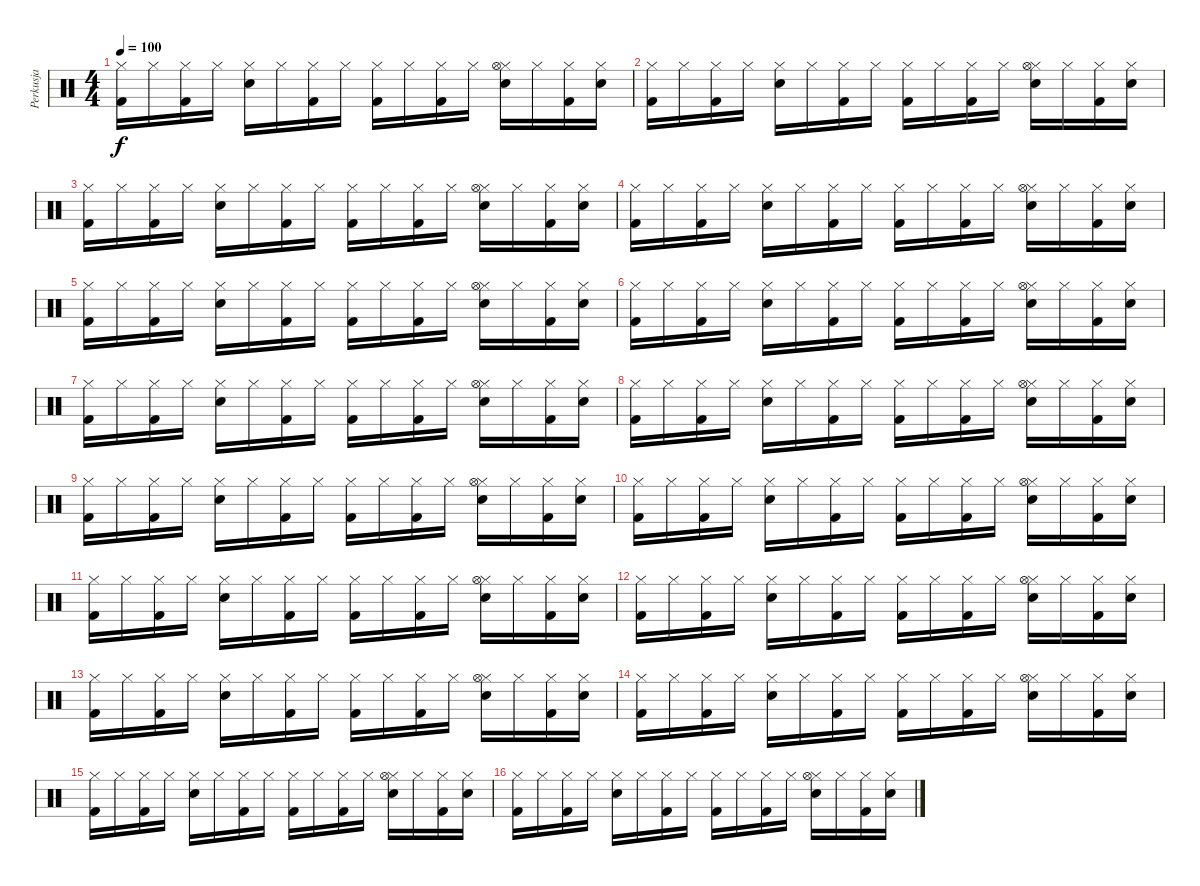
\track ("Perkusja" "Perkusja") {instrument percussion}
\staff {score}
\articulation defaults
\ts (4 4)
\tempo 100
\clef neutral
\ks c
("Hi-Hat (closed)" "Kick (hit) 2").16{dy f} "Hi-Hat (closed)".16 ("Hi-Hat (closed)" "Kick (hit) 2").16 "Hi-Hat (closed)".16 ("Hi-Hat (closed)" "Electric Snare (hit)").16 "Hi-Hat (closed)".16 ("Hi-Hat (closed)" "Kick (hit) 2").16 "Hi-Hat (closed)".16 ("Hi-Hat (closed)" "Kick (hit) 2").16 "Hi-Hat (closed)".16 ("Hi-Hat (closed)" "Kick (hit) 2").16 "Hi-Hat (closed)".16 ("Hi-Hat (closed)" "Hi-Hat (open)" "Electric Snare (hit)").16 "Hi-Hat (closed)".16 ("Hi-Hat (closed)" "Kick (hit) 2").16 ("Hi-Hat (closed)" "Electric Snare (hit)").16 |
("Hi-Hat (closed)" "Kick (hit) 2").16 "Hi-Hat (closed)".16 ("Hi-Hat (closed)" "Kick (hit) 2").16 "Hi-Hat (closed)".16 ("Hi-Hat (closed)" "Electric Snare (hit)").16 "Hi-Hat (closed)".16 ("Hi-Hat (closed)" "Kick (hit) 2").16 "Hi-Hat (closed)".16 ("Hi-Hat (closed)" "Kick (hit) 2").16 "Hi-Hat (closed)".16 ("Hi-Hat (closed)" "Kick (hit) 2").16 "Hi-Hat (closed)".16 ("Hi-Hat (closed)" "Hi-Hat (open)" "Electric Snare (hit)").16 "Hi-Hat (closed)".16 ("Hi-Hat (closed)" "Kick (hit) 2").16 ("Hi-Hat (closed)" "Electric Snare (hit)").16 |
("Hi-Hat (closed)" "Kick (hit) 2").16 "Hi-Hat (closed)".16 ("Hi-Hat (closed)" "Kick (hit) 2").16 "Hi-Hat (closed)".16 ("Hi-Hat (closed)" "Electric Snare (hit)").16 "Hi-Hat (closed)".16 ("Hi-Hat (closed)" "Kick (hit) 2").16 "Hi-Hat (closed)".16 ("Hi-Hat (closed)" "Kick (hit) 2").16 "Hi-Hat (closed)".16 ("Hi-Hat (closed)" "Kick (hit) 2").16 "Hi-Hat (closed)".16 ("Hi-Hat (closed)" "Hi-Hat (open)" "Electric Snare (hit)").16 "Hi-Hat (closed)".16 ("Hi-Hat (closed)" "Kick (hit) 2").16 ("Hi-Hat (closed)" "Electric Snare (hit)").16 |
("Hi-Hat (closed)" "Kick (hit) 2").16 "Hi-Hat (closed)".16 ("Hi-Hat (closed)" "Kick (hit) 2").16 "Hi-Hat (closed)".16 ("Hi-Hat (closed)" "Electric Snare (hit)").16 "Hi-Hat (closed)".16 ("Hi-Hat (closed)" "Kick (hit) 2").16 "Hi-Hat (closed)".16 ("Hi-Hat (closed)" "Kick (hit) 2").16 "Hi-Hat (closed)".16 ("Hi-Hat (closed)" "Kick (hit) 2").16 "Hi-Hat (closed)".16 ("Hi-Hat (closed)" "Hi-Hat (open)" "Electric Snare (hit)").16 "Hi-Hat (closed)".16 ("Hi-Hat (closed)" "Kick (hit) 2").16 ("Hi-Hat (closed)" "Electric Snare (hit)").16 |
("Hi-Hat (closed)" "Kick (hit) 2").16 "Hi-Hat (closed)".16 ("Hi-Hat (closed)" "Kick (hit) 2").16 "Hi-Hat (closed)".16 ("Hi-Hat (closed)" "Electric Snare (hit)").16 "Hi-Hat (closed)".16 ("Hi-Hat (closed)" "Kick (hit) 2").16 "Hi-Hat (closed)".16 ("Hi-Hat (closed)" "Kick (hit) 2").16 "Hi-Hat (closed)".16 ("Hi-Hat (closed)" "Kick (hit) 2").16 "Hi-Hat (closed)".16 ("Hi-Hat (closed)" "Hi-Hat (open)" "Electric Snare (hit)").16 "Hi-Hat (closed)".16 ("Hi-Hat (closed)" "Kick (hit) 2").16 ("Hi-Hat (closed)" "Electric Snare (hit)").16 |
("Hi-Hat (closed)" "Kick (hit) 2").16 "Hi-Hat (closed)".16 ("Hi-Hat (closed)" "Kick (hit) 2").16 "Hi-Hat (closed)".16 ("Hi-Hat (closed)" "Electric Snare (hit)").16 "Hi-Hat (closed)".16 ("Hi-Hat (closed)" "Kick (hit) 2").16 "Hi-Hat (closed)".16 ("Hi-Hat (closed)" "Kick (hit) 2").16 "Hi-Hat (closed)".16 ("Hi-Hat (closed)" "Kick (hit) 2").16 "Hi-Hat (closed)".16 ("Hi-Hat (closed)" "Hi-Hat (open)" "Electric Snare (hit)").16 "Hi-Hat (closed)".16 ("Hi-Hat (closed)" "Kick (hit) 2").16 ("Hi-Hat (closed)" "Electric Snare (hit)").16 |
("Hi-Hat (closed)" "Kick (hit) 2").16 "Hi-Hat (closed)".16 ("Hi-Hat (closed)" "Kick (hit) 2").16 "Hi-Hat (closed)".16 ("Hi-Hat (closed)" "Electric Snare (hit)").16 "Hi-Hat (closed)".16 ("Hi-Hat (closed)" "Kick (hit) 2").16 "Hi-Hat (closed)".16 ("Hi-Hat (closed)" "Kick (hit) 2").16 "Hi-Hat (closed)".16 ("Hi-Hat (closed)" "Kick (hit) 2").16 "Hi-Hat (closed)".16 ("Hi-Hat (closed)" "Hi-Hat (open)" "Electric Snare (hit)").16 "Hi-Hat (closed)".16 ("Hi-Hat (closed)" "Kick (hit) 2").16 ("Hi-Hat (closed)" "Electric Snare (hit)").16 |
("Hi-Hat (closed)" "Kick (hit) 2").16 "Hi-Hat (closed)".16 ("Hi-Hat (closed)" "Kick (hit) 2").16 "Hi-Hat (closed)".16 ("Hi-Hat (closed)" "Electric Snare (hit)").16 "Hi-Hat (closed)".16 ("Hi-Hat (closed)" "Kick (hit) 2").16 "Hi-Hat (closed)".16 ("Hi-Hat (closed)" "Kick (hit) 2").16 "Hi-Hat (closed)".16 ("Hi-Hat (closed)" "Kick (hit) 2").16 "Hi-Hat (closed)".16 ("Hi-Hat (closed)" "Hi-Hat (open)" "Electric Snare (hit)").16 "Hi-Hat (closed)".16 ("Hi-Hat (closed)" "Kick (hit) 2").16 ("Hi-Hat (closed)" "Electric Snare (hit)").16 |
("Hi-Hat (closed)" "Kick (hit) 2").16 "Hi-Hat (closed)".16 ("Hi-Hat (closed)" "Kick (hit) 2").16 "Hi-Hat (closed)".16 ("Hi-Hat (closed)" "Electric Snare (hit)").16 "Hi-Hat (closed)".16 ("Hi-Hat (closed)" "Kick (hit) 2").16 "Hi-Hat (closed)".16 ("Hi-Hat (closed)" "Kick (hit) 2").16 "Hi-Hat (closed)".16 ("Hi-Hat (closed)" "Kick (hit) 2").16 "Hi-Hat (closed)".16 ("Hi-Hat (closed)" "Hi-Hat (open)" "Electric Snare (hit)").16 "Hi-Hat (closed)".16 ("Hi-Hat (closed)" "Kick (hit) 2").16 ("Hi-Hat (closed)" "Electric Snare (hit)").16 |
("Hi-Hat (closed)" "Kick (hit) 2").16 "Hi-Hat (closed)".16 ("Hi-Hat (closed)" "Kick (hit) 2").16 "Hi-Hat (closed)".16 ("Hi-Hat (closed)" "Electric Snare (hit)").16 "Hi-Hat (closed)".16 ("Hi-Hat (closed)" "Kick (hit) 2").16 "Hi-Hat (closed)".16 ("Hi-Hat (closed)" "Kick (hit) 2").16 "Hi-Hat (closed)".16 ("Hi-Hat (closed)" "Kick (hit) 2").16 "Hi-Hat (closed)".16 ("Hi-Hat (closed)" "Hi-Hat (open)" "Electric Snare (hit)").16 "Hi-Hat (closed)".16 ("Hi-Hat (closed)" "Kick (hit) 2").16 ("Hi-Hat (closed)" "Electric Snare (hit)").16 |
("Hi-Hat (closed)" "Kick (hit) 2").16 "Hi-Hat (closed)".16 ("Hi-Hat (closed)" "Kick (hit) 2").16 "Hi-Hat (closed)".16 ("Hi-Hat (closed)" "Electric Snare (hit)").16 "Hi-Hat (closed)".16 ("Hi-Hat (closed)" "Kick (hit) 2").16 "Hi-Hat (closed)".16 ("Hi-Hat (closed)" "Kick (hit) 2").16 "Hi-Hat (closed)".16 ("Hi-Hat (closed)" "Kick (hit) 2").16 "Hi-Hat (closed)".16 ("Hi-Hat (closed)" "Hi-Hat (open)" "Electric Snare (hit)").16 "Hi-Hat (closed)".16 ("Hi-Hat (closed)" "Kick (hit) 2").16 ("Hi-Hat (closed)" "Electric Snare (hit)").16 |
("Hi-Hat (closed)" "Kick (hit) 2").16 "Hi-Hat (closed)".16 ("Hi-Hat (closed)" "Kick (hit) 2").16 "Hi-Hat (closed)".16 ("Hi-Hat (closed)" "Electric Snare (hit)").16 "Hi-Hat (closed)".16 ("Hi-Hat (closed)" "Kick (hit) 2").16 "Hi-Hat (closed)".16 ("Hi-Hat (closed)" "Kick (hit) 2").16 "Hi-Hat (closed)".16 ("Hi-Hat (closed)" "Kick (hit) 2").16 "Hi-Hat (closed)".16 ("Hi-Hat (closed)" "Hi-Hat (open)" "Electric Snare (hit)").16 "Hi-Hat (closed)".16 ("Hi-Hat (closed)" "Kick (hit) 2").16 ("Hi-Hat (closed)" "Electric Snare (hit)").16 |
("Hi-Hat (closed)" "Kick (hit) 2").16 "Hi-Hat (closed)".16 ("Hi-Hat (closed)" "Kick (hit) 2").16 "Hi-Hat (closed)".16 ("Hi-Hat (closed)" "Electric Snare (hit)").16 "Hi-Hat (closed)".16 ("Hi-Hat (closed)" "Kick (hit) 2").16 "Hi-Hat (closed)".16 ("Hi-Hat (closed)" "Kick (hit) 2").16 "Hi-Hat (closed)".16 ("Hi-Hat (closed)" "Kick (hit) 2").16 "Hi-Hat (closed)".16 ("Hi-Hat (closed)" "Hi-Hat (open)" "Electric Snare (hit)").16 "Hi-Hat (closed)".16 ("Hi-Hat (closed)" "Kick (hit) 2").16 ("Hi-Hat (closed)" "Electric Snare (hit)").16 |
("Hi-Hat (closed)" "Kick (hit) 2").16 "Hi-Hat (closed)".16 ("Hi-Hat (closed)" "Kick (hit) 2").16 "Hi-Hat (closed)".16 ("Hi-Hat (closed)" "Electric Snare (hit)").16 "Hi-Hat (closed)".16 ("Hi-Hat (closed)" "Kick (hit) 2").16 "Hi-Hat (closed)".16 ("Hi-Hat (closed)" "Kick (hit) 2").16 "Hi-Hat (closed)".16 ("Hi-Hat (closed)" "Kick (hit) 2").16 "Hi-Hat (closed)".16 ("Hi-Hat (closed)" "Hi-Hat (open)" "Electric Snare (hit)").16 "Hi-Hat (closed)".16 ("Hi-Hat (closed)" "Kick (hit) 2").16 ("Hi-Hat (closed)" "Electric Snare (hit)").16 |
("Hi-Hat (closed)" "Kick (hit) 2").16 "Hi-Hat (closed)".16 ("Hi-Hat (closed)" "Kick (hit) 2").16 "Hi-Hat (closed)".16 ("Hi-Hat (closed)" "Electric Snare (hit)").16 "Hi-Hat (closed)".16 ("Hi-Hat (closed)" "Kick (hit) 2").16 "Hi-Hat (closed)".16 ("Hi-Hat (closed)" "Kick (hit) 2").16 "Hi-Hat (closed)".16 ("Hi-Hat (closed)" "Kick (hit) 2").16 "Hi-Hat (closed)".16 ("Hi-Hat (closed)" "Hi-Hat (open)" "Electric Snare (hit)").16 "Hi-Hat (closed)".16 ("Hi-Hat (closed)" "Kick (hit) 2").16 ("Hi-Hat (closed)" "Electric Snare (hit)").16 |
("Hi-Hat (closed)" "Kick (hit) 2").16 "Hi-Hat (closed)".16 ("Hi-Hat (closed)" "Kick (hit) 2").16 "Hi-Hat (closed)".16 ("Hi-Hat (closed)" "Electric Snare (hit)").16 "Hi-Hat (closed)".16 ("Hi-Hat (closed)" "Kick (hit) 2").16 "Hi-Hat (closed)".16 ("Hi-Hat (closed)" "Kick (hit) 2").16 "Hi-Hat (closed)".16 ("Hi-Hat (closed)" "Kick (hit) 2").16 "Hi-Hat (closed)".16 ("Hi-Hat (closed)" "Hi-Hat (open)" "Electric Snare (hit)").16 "Hi-Hat (closed)".16 ("Hi-Hat (closed)" "Kick (hit) 2").16 ("Hi-Hat (closed)" "Electric Snare (hit)").16
